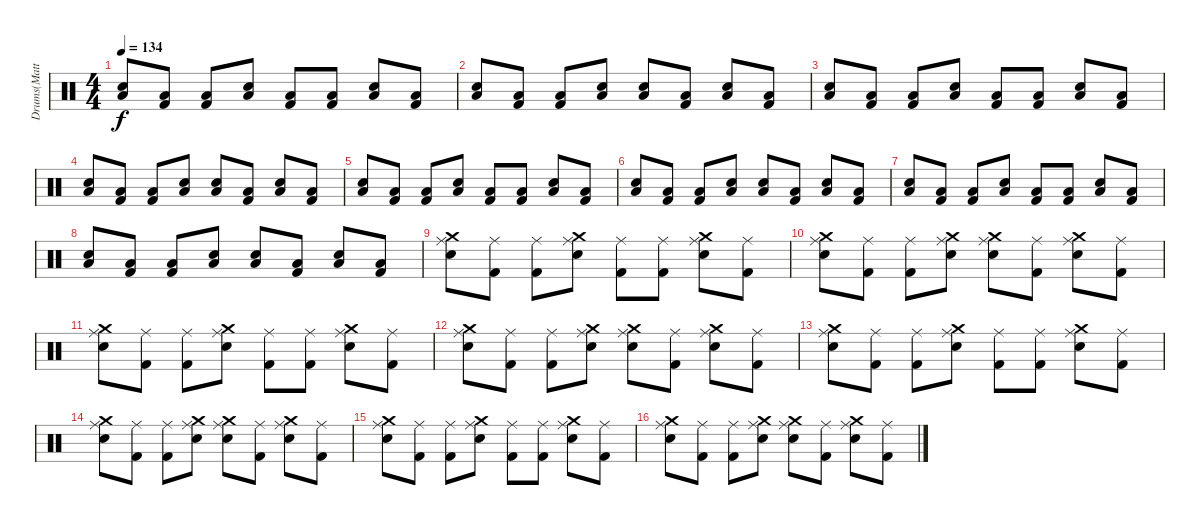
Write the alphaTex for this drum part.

\track ("Drums(Matthias)" "Drums(Matt") {instrument percussion}
\staff {score}
\articulation defaults
\ts (4 4)
\tempo 134
\clef neutral
\ks c
("Low Tom (hit)" "Snare (hit) 2").8{dy f} ("Low Tom (hit)" "Kick (hit) 2").8 ("Low Tom (hit)" "Kick (hit) 2").8 ("Low Tom (hit)" "Snare (hit) 2").8 ("Low Tom (hit)" "Kick (hit) 2").8 ("Low Tom (hit)" "Kick (hit) 2").8 ("Low Tom (hit)" "Snare (hit) 2").8 ("Low Tom (hit)" "Kick (hit) 2").8 |
("Low Tom (hit)" "Snare (hit) 2").8 ("Low Tom (hit)" "Kick (hit) 2").8 ("Low Tom (hit)" "Kick (hit) 2").8 ("Low Tom (hit)" "Snare (hit) 2").8 ("Low Tom (hit)" "Snare (hit) 2").8 ("Low Tom (hit)" "Kick (hit) 2").8 ("Low Tom (hit)" "Snare (hit) 2").8 ("Low Tom (hit)" "Kick (hit) 2").8 |
("Low Tom (hit)" "Snare (hit) 2").8 ("Low Tom (hit)" "Kick (hit) 2").8 ("Low Tom (hit)" "Kick (hit) 2").8 ("Low Tom (hit)" "Snare (hit) 2").8 ("Low Tom (hit)" "Kick (hit) 2").8 ("Low Tom (hit)" "Kick (hit) 2").8 ("Low Tom (hit)" "Snare (hit) 2").8 ("Low Tom (hit)" "Kick (hit) 2").8 |
("Low Tom (hit)" "Snare (hit) 2").8 ("Low Tom (hit)" "Kick (hit) 2").8 ("Low Tom (hit)" "Kick (hit) 2").8 ("Low Tom (hit)" "Snare (hit) 2").8 ("Low Tom (hit)" "Snare (hit) 2").8 ("Low Tom (hit)" "Kick (hit) 2").8 ("Low Tom (hit)" "Snare (hit) 2").8 ("Low Tom (hit)" "Kick (hit) 2").8 |
("Low Tom (hit)" "Snare (hit) 2").8 ("Low Tom (hit)" "Kick (hit) 2").8 ("Low Tom (hit)" "Kick (hit) 2").8 ("Low Tom (hit)" "Snare (hit) 2").8 ("Low Tom (hit)" "Kick (hit) 2").8 ("Low Tom (hit)" "Kick (hit) 2").8 ("Low Tom (hit)" "Snare (hit) 2").8 ("Low Tom (hit)" "Kick (hit) 2").8 |
("Low Tom (hit)" "Snare (hit) 2").8 ("Low Tom (hit)" "Kick (hit) 2").8 ("Low Tom (hit)" "Kick (hit) 2").8 ("Low Tom (hit)" "Snare (hit) 2").8 ("Low Tom (hit)" "Snare (hit) 2").8 ("Low Tom (hit)" "Kick (hit) 2").8 ("Low Tom (hit)" "Snare (hit) 2").8 ("Low Tom (hit)" "Kick (hit) 2").8 |
("Low Tom (hit)" "Snare (hit) 2").8 ("Low Tom (hit)" "Kick (hit) 2").8 ("Low Tom (hit)" "Kick (hit) 2").8 ("Low Tom (hit)" "Snare (hit) 2").8 ("Low Tom (hit)" "Kick (hit) 2").8 ("Low Tom (hit)" "Kick (hit) 2").8 ("Low Tom (hit)" "Snare (hit) 2").8 ("Low Tom (hit)" "Kick (hit) 2").8 |
("Low Tom (hit)" "Snare (hit) 2").8 ("Low Tom (hit)" "Kick (hit) 2").8 ("Low Tom (hit)" "Kick (hit) 2").8 ("Low Tom (hit)" "Snare (hit) 2").8 ("Low Tom (hit)" "Snare (hit) 2").8 ("Low Tom (hit)" "Kick (hit) 2").8 ("Low Tom (hit)" "Snare (hit) 2").8 ("Low Tom (hit)" "Kick (hit) 2").8 |
("Ride (middle)" "Crash medium (hit)" "Snare (hit) 2").8{volume 13} ("Ride (middle)" "Kick (hit) 2").8 ("Ride (middle)" "Kick (hit) 2").8 ("Ride (middle)" "Crash medium (hit)" "Snare (hit) 2").8 ("Ride (middle)" "Kick (hit) 2").8 ("Ride (middle)" "Kick (hit) 2").8 ("Ride (middle)" "Crash medium (hit)" "Snare (hit) 2").8 ("Ride (middle)" "Kick (hit) 2").8 |
("Ride (middle)" "Crash medium (hit)" "Snare (hit) 2").8 ("Ride (middle)" "Kick (hit) 2").8 ("Ride (middle)" "Kick (hit) 2").8 ("Ride (middle)" "Crash medium (hit)" "Snare (hit) 2").8 ("Ride (middle)" "Crash medium (hit)" "Snare (hit) 2").8 ("Ride (middle)" "Kick (hit) 2").8 ("Ride (middle)" "Crash medium (hit)" "Snare (hit) 2").8 ("Ride (middle)" "Kick (hit) 2").8 |
("Ride (middle)" "Crash medium (hit)" "Snare (hit) 2").8 ("Ride (middle)" "Kick (hit) 2").8 ("Ride (middle)" "Kick (hit) 2").8 ("Ride (middle)" "Crash medium (hit)" "Snare (hit) 2").8 ("Ride (middle)" "Kick (hit) 2").8 ("Ride (middle)" "Kick (hit) 2").8 ("Ride (middle)" "Crash medium (hit)" "Snare (hit) 2").8 ("Ride (middle)" "Kick (hit) 2").8 |
("Ride (middle)" "Crash medium (hit)" "Snare (hit) 2").8 ("Ride (middle)" "Kick (hit) 2").8 ("Ride (middle)" "Kick (hit) 2").8 ("Ride (middle)" "Crash medium (hit)" "Snare (hit) 2").8 ("Ride (middle)" "Crash medium (hit)" "Snare (hit) 2").8 ("Ride (middle)" "Kick (hit) 2").8 ("Ride (middle)" "Crash medium (hit)" "Snare (hit) 2").8 ("Ride (middle)" "Kick (hit) 2").8 |
("Ride (middle)" "Crash medium (hit)" "Snare (hit) 2").8 ("Ride (middle)" "Kick (hit) 2").8 ("Ride (middle)" "Kick (hit) 2").8 ("Ride (middle)" "Crash medium (hit)" "Snare (hit) 2").8 ("Ride (middle)" "Kick (hit) 2").8 ("Ride (middle)" "Kick (hit) 2").8 ("Ride (middle)" "Crash medium (hit)" "Snare (hit) 2").8 ("Ride (middle)" "Kick (hit) 2").8 |
("Ride (middle)" "Crash medium (hit)" "Snare (hit) 2").8 ("Ride (middle)" "Kick (hit) 2").8 ("Ride (middle)" "Kick (hit) 2").8 ("Ride (middle)" "Crash medium (hit)" "Snare (hit) 2").8 ("Ride (middle)" "Crash medium (hit)" "Snare (hit) 2").8 ("Ride (middle)" "Kick (hit) 2").8 ("Ride (middle)" "Crash medium (hit)" "Snare (hit) 2").8 ("Ride (middle)" "Kick (hit) 2").8 |
("Ride (middle)" "Crash medium (hit)" "Snare (hit) 2").8 ("Ride (middle)" "Kick (hit) 2").8 ("Ride (middle)" "Kick (hit) 2").8 ("Ride (middle)" "Crash medium (hit)" "Snare (hit) 2").8 ("Ride (middle)" "Kick (hit) 2").8 ("Ride (middle)" "Kick (hit) 2").8 ("Ride (middle)" "Crash medium (hit)" "Snare (hit) 2").8 ("Ride (middle)" "Kick (hit) 2").8 |
("Ride (middle)" "Crash medium (hit)" "Snare (hit) 2").8 ("Ride (middle)" "Kick (hit) 2").8 ("Ride (middle)" "Kick (hit) 2").8 ("Ride (middle)" "Crash medium (hit)" "Snare (hit) 2").8 ("Ride (middle)" "Crash medium (hit)" "Snare (hit) 2").8 ("Ride (middle)" "Kick (hit) 2").8 ("Ride (middle)" "Crash medium (hit)" "Snare (hit) 2").8 ("Ride (middle)" "Kick (hit) 2").8
